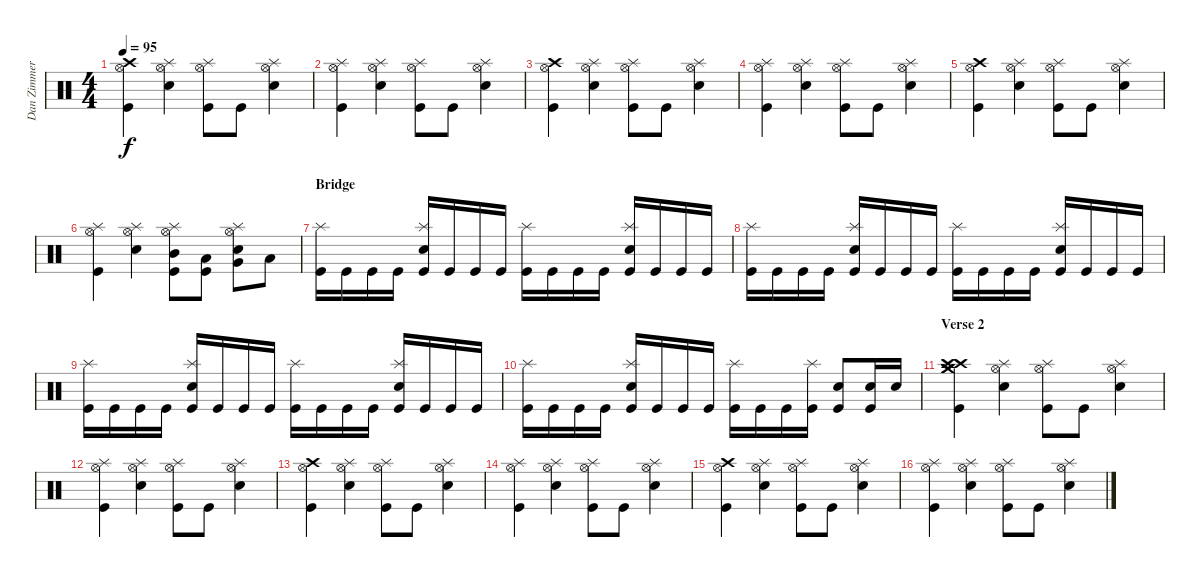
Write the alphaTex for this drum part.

\track ("Dan Zimmermann [drums]" "Dan Zimmer") {instrument percussion}
\staff {score}
\articulation defaults
\ts (4 4)
\tempo 95
\clef neutral
\ks c
("Hi-Hat (open)" "Crash high (hit)" "Kick (hit)").4{dy f} ("Hi-Hat (open)" "Splash (hit)" "Snare (hit) 2").4 ("Hi-Hat (open)" "Splash (hit)" "Kick (hit)").8 "Kick (hit)".8 ("Hi-Hat (open)" "Splash (hit)" "Snare (hit) 2").4 |
("Hi-Hat (open)" "Splash (hit)" "Kick (hit)").4 ("Hi-Hat (open)" "Splash (hit)" "Snare (hit) 2").4 ("Hi-Hat (open)" "Splash (hit)" "Kick (hit)").8 "Kick (hit)".8 ("Hi-Hat (open)" "Splash (hit)" "Snare (hit) 2").4 |
("Hi-Hat (open)" "Crash high (hit)" "Kick (hit)").4 ("Hi-Hat (open)" "Splash (hit)" "Snare (hit) 2").4 ("Hi-Hat (open)" "Splash (hit)" "Kick (hit)").8 "Kick (hit)".8 ("Hi-Hat (open)" "Splash (hit)" "Snare (hit) 2").4 |
("Hi-Hat (open)" "Splash (hit)" "Kick (hit)").4 ("Hi-Hat (open)" "Splash (hit)" "Snare (hit) 2").4 ("Hi-Hat (open)" "Splash (hit)" "Kick (hit)").8 "Kick (hit)".8 ("Hi-Hat (open)" "Splash (hit)" "Snare (hit) 2").4 |
("Hi-Hat (open)" "Crash high (hit)" "Kick (hit)").4 ("Hi-Hat (open)" "Splash (hit)" "Snare (hit) 2").4 ("Hi-Hat (open)" "Splash (hit)" "Kick (hit)").8 "Kick (hit)".8 ("Hi-Hat (open)" "Splash (hit)" "Snare (hit) 2").4 |
("Hi-Hat (open)" "Splash (hit)" "Kick (hit)").4 ("Hi-Hat (open)" "Splash (hit)" "Snare (hit) 2").4 ("Hi-Hat (open)" "Splash (hit)" "Mid Tom (hit)" "Kick (hit)").8 ("Low Tom (hit)" "Kick (hit)").8 ("Hi-Hat (open)" "Splash (hit)" "Snare (hit) 2" "Very Low Tom (hit)").8 "Low Floor Tom (hit)".8 |
\section ("" "Bridge")
("Splash (hit)" "Kick (hit)").16 "Kick (hit)".16 "Kick (hit)".16 "Kick (hit)".16 ("Splash (hit)" "Snare (hit) 2" "Kick (hit)").16 "Kick (hit)".16 "Kick (hit)".16 "Kick (hit)".16 ("Splash (hit)" "Kick (hit)").16 "Kick (hit)".16 "Kick (hit)".16 "Kick (hit)".16 ("Splash (hit)" "Snare (hit) 2" "Kick (hit)").16 "Kick (hit)".16 "Kick (hit)".16 "Kick (hit)".16 |
("Splash (hit)" "Kick (hit)").16 "Kick (hit)".16 "Kick (hit)".16 "Kick (hit)".16 ("Splash (hit)" "Snare (hit) 2" "Kick (hit)").16 "Kick (hit)".16 "Kick (hit)".16 "Kick (hit)".16 ("Splash (hit)" "Kick (hit)").16 "Kick (hit)".16 "Kick (hit)".16 "Kick (hit)".16 ("Splash (hit)" "Snare (hit) 2" "Kick (hit)").16 "Kick (hit)".16 "Kick (hit)".16 "Kick (hit)".16 |
("Splash (hit)" "Kick (hit)").16 "Kick (hit)".16 "Kick (hit)".16 "Kick (hit)".16 ("Splash (hit)" "Snare (hit) 2" "Kick (hit)").16 "Kick (hit)".16 "Kick (hit)".16 "Kick (hit)".16 ("Splash (hit)" "Kick (hit)").16 "Kick (hit)".16 "Kick (hit)".16 "Kick (hit)".16 ("Splash (hit)" "Snare (hit) 2" "Kick (hit)").16 "Kick (hit)".16 "Kick (hit)".16 "Kick (hit)".16 |
("Splash (hit)" "Kick (hit)").16 "Kick (hit)".16 "Kick (hit)".16 "Kick (hit)".16 ("Splash (hit)" "Snare (hit) 2" "Kick (hit)").16 "Kick (hit)".16 "Kick (hit)".16 "Kick (hit)".16 ("Splash (hit)" "Kick (hit)").16 "Kick (hit)".16 "Kick (hit)".16 ("Splash (hit)" "Kick (hit)").16 ("Snare (hit) 2" "Kick (hit)").8 ("Snare (hit) 2" "Kick (hit)").16 "Snare (hit) 2".16 |
\section ("" "Verse 2")
("Crash high (hit)" "Crash high (hit)" "Crash medium (hit)" "Crash medium (hit)" "Kick (hit)").4 ("Hi-Hat (open)" "Splash (hit)" "Snare (hit) 2").4 ("Hi-Hat (open)" "Splash (hit)" "Kick (hit)").8 "Kick (hit)".8 ("Hi-Hat (open)" "Splash (hit)" "Snare (hit) 2").4 |
("Hi-Hat (open)" "Splash (hit)" "Kick (hit)").4 ("Hi-Hat (open)" "Splash (hit)" "Snare (hit) 2").4 ("Hi-Hat (open)" "Splash (hit)" "Kick (hit)").8 "Kick (hit)".8 ("Hi-Hat (open)" "Splash (hit)" "Snare (hit) 2").4 |
("Hi-Hat (open)" "Crash high (hit)" "Kick (hit)").4 ("Hi-Hat (open)" "Splash (hit)" "Snare (hit) 2").4 ("Hi-Hat (open)" "Splash (hit)" "Kick (hit)").8 "Kick (hit)".8 ("Hi-Hat (open)" "Splash (hit)" "Snare (hit) 2").4 |
("Hi-Hat (open)" "Splash (hit)" "Kick (hit)").4 ("Hi-Hat (open)" "Splash (hit)" "Snare (hit) 2").4 ("Hi-Hat (open)" "Splash (hit)" "Kick (hit)").8 "Kick (hit)".8 ("Hi-Hat (open)" "Splash (hit)" "Snare (hit) 2").4 |
("Hi-Hat (open)" "Crash high (hit)" "Kick (hit)").4 ("Hi-Hat (open)" "Splash (hit)" "Snare (hit) 2").4 ("Hi-Hat (open)" "Splash (hit)" "Kick (hit)").8 "Kick (hit)".8 ("Hi-Hat (open)" "Splash (hit)" "Snare (hit) 2").4 |
("Hi-Hat (open)" "Splash (hit)" "Kick (hit)").4 ("Hi-Hat (open)" "Splash (hit)" "Snare (hit) 2").4 ("Hi-Hat (open)" "Splash (hit)" "Kick (hit)").8 "Kick (hit)".8 ("Hi-Hat (open)" "Splash (hit)" "Snare (hit) 2").4
